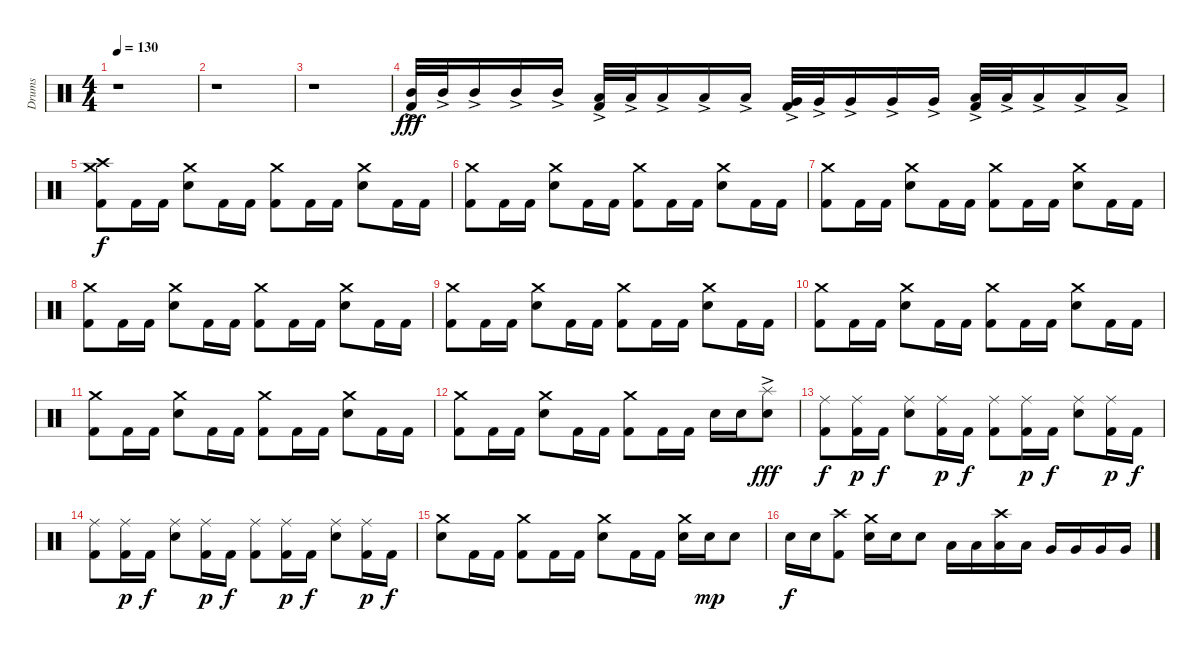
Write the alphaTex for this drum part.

\track ("Drums" "Drums") {instrument percussion}
\staff {score}
\articulation defaults
\ts (4 4)
\tempo 130
\clef neutral
\ks c
r.1{dy f} |
r.1 |
r.1 |
("Mid Tom (hit)"{ac} "Kick (hit) 2"{ac}).32{dy fff} "Mid Tom (hit)"{ac}.32 "Mid Tom (hit)"{ac}.16 "Mid Tom (hit)"{ac}.16 "Mid Tom (hit)"{ac}.16 ("Low Tom (hit)"{ac} "Kick (hit) 2"{ac}).32 "Low Tom (hit)"{ac}.32 "Low Tom (hit)"{ac}.16 "Low Tom (hit)"{ac}.16 "Low Tom (hit)"{ac}.16 ("Very Low Tom (hit)"{ac} "Kick (hit) 2"{ac}).32 "Very Low Tom (hit)"{ac}.32 "Very Low Tom (hit)"{ac}.16 "Very Low Tom (hit)"{ac}.16 "Very Low Tom (hit)"{ac}.16 ("Low Floor Tom (hit)"{ac} "Kick (hit) 2"{ac}).32 "Low Floor Tom (hit)"{ac}.32 "Low Floor Tom (hit)"{ac}.16 "Low Floor Tom (hit)"{ac}.16 "Low Floor Tom (hit)"{ac}.16 |
("Crash high (hit)" "Crash medium (hit)" "Kick (hit) 2").8{dy f volume 16} "Kick (hit) 2".16 "Kick (hit) 2".16 ("Crash medium (hit)" "Snare (hit) 2").8 "Kick (hit) 2".16 "Kick (hit) 2".16 ("Crash medium (hit)" "Kick (hit) 2").8 "Kick (hit) 2".16 "Kick (hit) 2".16 ("Crash medium (hit)" "Snare (hit) 2").8 "Kick (hit) 2".16 "Kick (hit) 2".16 |
("Crash medium (hit)" "Kick (hit) 2").8 "Kick (hit) 2".16 "Kick (hit) 2".16 ("Crash medium (hit)" "Snare (hit) 2").8 "Kick (hit) 2".16 "Kick (hit) 2".16 ("Crash medium (hit)" "Kick (hit) 2").8 "Kick (hit) 2".16 "Kick (hit) 2".16 ("Crash medium (hit)" "Snare (hit) 2").8 "Kick (hit) 2".16 "Kick (hit) 2".16 |
("Crash medium (hit)" "Kick (hit) 2").8 "Kick (hit) 2".16 "Kick (hit) 2".16 ("Crash medium (hit)" "Snare (hit) 2").8 "Kick (hit) 2".16 "Kick (hit) 2".16 ("Crash medium (hit)" "Kick (hit) 2").8 "Kick (hit) 2".16 "Kick (hit) 2".16 ("Crash medium (hit)" "Snare (hit) 2").8 "Kick (hit) 2".16 "Kick (hit) 2".16 |
("Crash medium (hit)" "Kick (hit) 2").8 "Kick (hit) 2".16 "Kick (hit) 2".16 ("Crash medium (hit)" "Snare (hit) 2").8 "Kick (hit) 2".16 "Kick (hit) 2".16 ("Crash medium (hit)" "Kick (hit) 2").8 "Kick (hit) 2".16 "Kick (hit) 2".16 ("Crash medium (hit)" "Snare (hit) 2").8 "Kick (hit) 2".16 "Kick (hit) 2".16 |
("Crash medium (hit)" "Kick (hit) 2").8 "Kick (hit) 2".16 "Kick (hit) 2".16 ("Crash medium (hit)" "Snare (hit) 2").8 "Kick (hit) 2".16 "Kick (hit) 2".16 ("Crash medium (hit)" "Kick (hit) 2").8 "Kick (hit) 2".16 "Kick (hit) 2".16 ("Crash medium (hit)" "Snare (hit) 2").8 "Kick (hit) 2".16 "Kick (hit) 2".16 |
("Crash medium (hit)" "Kick (hit) 2").8 "Kick (hit) 2".16 "Kick (hit) 2".16 ("Crash medium (hit)" "Snare (hit) 2").8 "Kick (hit) 2".16 "Kick (hit) 2".16 ("Crash medium (hit)" "Kick (hit) 2").8 "Kick (hit) 2".16 "Kick (hit) 2".16 ("Crash medium (hit)" "Snare (hit) 2").8 "Kick (hit) 2".16 "Kick (hit) 2".16 |
("Crash medium (hit)" "Kick (hit) 2").8 "Kick (hit) 2".16 "Kick (hit) 2".16 ("Crash medium (hit)" "Snare (hit) 2").8 "Kick (hit) 2".16 "Kick (hit) 2".16 ("Crash medium (hit)" "Kick (hit) 2").8 "Kick (hit) 2".16 "Kick (hit) 2".16 ("Crash medium (hit)" "Snare (hit) 2").8 "Kick (hit) 2".16 "Kick (hit) 2".16 |
("Crash medium (hit)" "Kick (hit) 2").8 "Kick (hit) 2".16 "Kick (hit) 2".16 ("Crash medium (hit)" "Snare (hit) 2").8 "Kick (hit) 2".16 "Kick (hit) 2".16 ("Crash medium (hit)" "Kick (hit) 2").8 "Kick (hit) 2".16 "Kick (hit) 2".16 "Snare (hit) 2".16 "Snare (hit) 2".16 ("Splash (hit)"{ac} "Snare (hit) 2").8{dy fff} |
("Ride (middle)" "Kick (hit) 2").8{dy f} ("Ride (middle)" "Kick (hit) 2").16{dy p} "Kick (hit) 2".16{dy f} ("Ride (middle)" "Snare (hit) 2").8 ("Ride (middle)" "Kick (hit) 2").16{dy p} "Kick (hit) 2".16{dy f} ("Ride (middle)" "Kick (hit) 2").8 ("Ride (middle)" "Kick (hit) 2").16{dy p} "Kick (hit) 2".16{dy f} ("Ride (middle)" "Snare (hit) 2").8 ("Ride (middle)" "Kick (hit) 2").16{dy p} "Kick (hit) 2".16{dy f} |
("Ride (middle)" "Kick (hit) 2").8 ("Ride (middle)" "Kick (hit) 2").16{dy p} "Kick (hit) 2".16{dy f} ("Ride (middle)" "Snare (hit) 2").8 ("Ride (middle)" "Kick (hit) 2").16{dy p} "Kick (hit) 2".16{dy f} ("Ride (middle)" "Kick (hit) 2").8 ("Ride (middle)" "Kick (hit) 2").16{dy p} "Kick (hit) 2".16{dy f} ("Ride (middle)" "Snare (hit) 2").8 ("Ride (middle)" "Kick (hit) 2").16{dy p} "Kick (hit) 2".16{dy f} |
("Crash medium (hit)" "Snare (hit) 2").8 "Kick (hit) 2".16 "Kick (hit) 2".16 ("Crash medium (hit)" "Kick (hit) 2").8 "Kick (hit) 2".16 "Kick (hit) 2".16 ("Crash medium (hit)" "Snare (hit) 2").8 "Kick (hit) 2".16 "Kick (hit) 2".16 ("Crash medium (hit)" "Snare (hit) 2").16 "Snare (hit) 2".16{dy mp} "Snare (hit) 2".8 |
"Snare (hit) 2".16{dy f} "Snare (hit) 2".16 ("Crash high (hit)" "Kick (hit) 2").8 ("Crash medium (hit)" "Snare (hit) 2").16 "Snare (hit) 2".16 "Snare (hit) 2".8 "Low Tom (hit)".16 "Low Tom (hit)".16 ("Crash high (hit)" "Low Tom (hit)").16 "Low Tom (hit)".16 "Very Low Tom (hit)".16 "Very Low Tom (hit)".16 "Very Low Tom (hit)".16 "Very Low Tom (hit)".16
